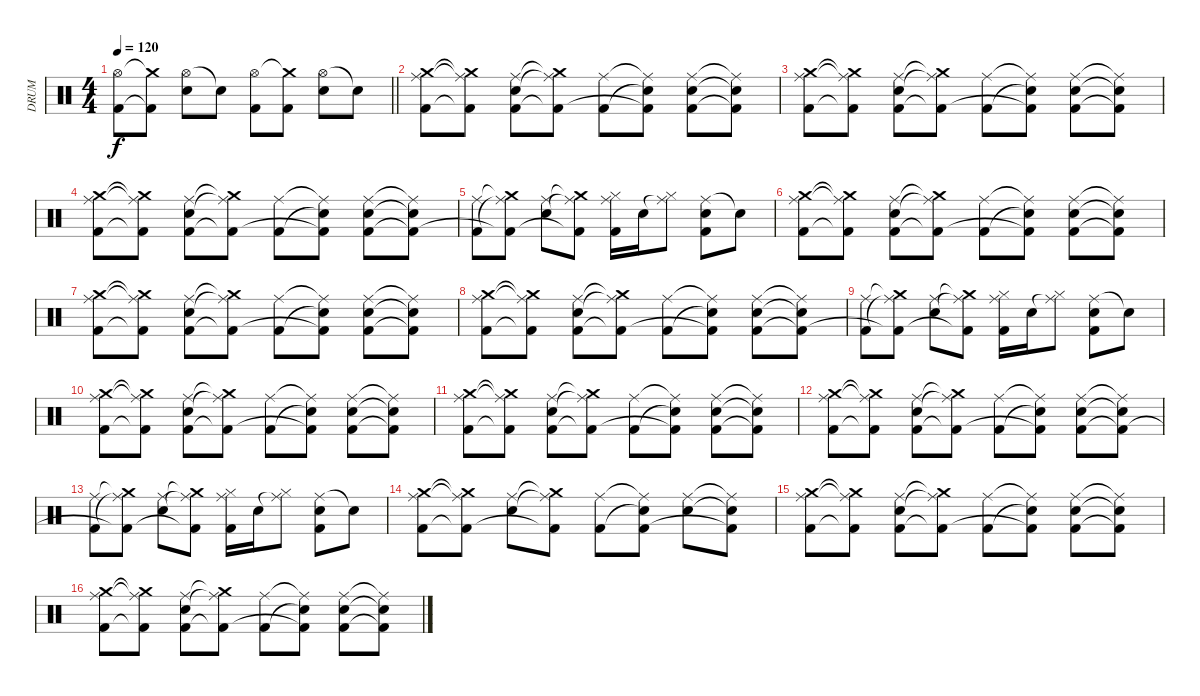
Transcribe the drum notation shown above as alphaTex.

\track ("DRUM" "DRUM") {instrument percussion}
\staff {score}
\articulation defaults
\ts (4 4)
\tempo 120
\clef neutral
\barLineRight lightlight
\ks c
("Hi-Hat (open)" "Kick (hit) 2").8{dy f} ("Crash medium (hit)"{t} "Kick (hit) 2"{t}).8 ("Hi-Hat (open)" "Electric Snare (hit)").8 "Electric Snare (hit)"{t}.8 ("Hi-Hat (open)" "Kick (hit) 2").8 ("Crash medium (hit)"{t} "Kick (hit) 2").8 ("Hi-Hat (open)" "Electric Snare (hit)").8 "Electric Snare (hit)"{t}.8 |
("Crash medium (hit)" "Ride (middle)" "Kick (hit) 2").8 ("Crash medium (hit)"{t} "Ride (middle)"{t} "Kick (hit) 2"{t}).8 ("Ride (middle)" "Electric Snare (hit)" "Kick (hit) 2").8 ("Crash medium (hit)"{t} "Ride (middle)"{t} "Kick (hit) 2"{t}).8 ("Ride (middle)" "Kick (hit) 2").8 ("Ride (middle)"{t} "Electric Snare (hit)"{t} "Kick (hit) 2"{t}).8 ("Ride (middle)" "Electric Snare (hit)" "Kick (hit) 2").8 ("Ride (middle)"{t} "Electric Snare (hit)"{t} "Kick (hit) 2"{t}).8 |
("Crash medium (hit)" "Ride (middle)" "Kick (hit) 2").8 ("Crash medium (hit)"{t} "Ride (middle)"{t} "Kick (hit) 2"{t}).8 ("Ride (middle)" "Electric Snare (hit)" "Kick (hit) 2").8 ("Crash medium (hit)"{t} "Ride (middle)"{t} "Kick (hit) 2"{t}).8 ("Ride (middle)" "Kick (hit) 2").8 ("Ride (middle)"{t} "Electric Snare (hit)"{t} "Kick (hit) 2"{t}).8 ("Ride (middle)" "Electric Snare (hit)" "Kick (hit) 2").8 ("Ride (middle)"{t} "Electric Snare (hit)"{t} "Kick (hit) 2"{t}).8 |
("Crash medium (hit)" "Ride (middle)" "Kick (hit) 2").8 ("Crash medium (hit)"{t} "Ride (middle)"{t} "Kick (hit) 2"{t}).8 ("Ride (middle)" "Electric Snare (hit)" "Kick (hit) 2").8 ("Crash medium (hit)"{t} "Ride (middle)"{t} "Kick (hit) 2"{t}).8 ("Ride (middle)" "Kick (hit) 2").8 ("Ride (middle)"{t} "Electric Snare (hit)"{t} "Kick (hit) 2"{t}).8 ("Ride (middle)" "Electric Snare (hit)" "Kick (hit) 2").8 ("Ride (middle)"{t} "Electric Snare (hit)"{t} "Kick (hit) 2"{t}).8 |
("Ride (middle)" "Kick (hit) 2").8 ("Crash medium (hit)"{t} "Ride (middle)"{t} "Kick (hit) 2"{t}).8 ("Ride (middle)" "Electric Snare (hit)").8 ("Crash medium (hit)"{t} "Ride (middle)"{t} "Kick (hit) 2"{t}).8 ("Ride (middle)" "Hi-Hat (closed)" "Kick (hit) 2").16 "Electric Snare (hit)".16 ("Ride (middle)"{t} "Hi-Hat (closed)").8 ("Ride (middle)" "Electric Snare (hit)" "Kick (hit) 2").8 "Electric Snare (hit)"{t}.8 |
("Crash medium (hit)" "Ride (middle)" "Kick (hit) 2").8 ("Crash medium (hit)"{t} "Ride (middle)"{t} "Kick (hit) 2"{t}).8 ("Ride (middle)" "Electric Snare (hit)" "Kick (hit) 2").8 ("Crash medium (hit)"{t} "Ride (middle)"{t} "Kick (hit) 2"{t}).8 ("Ride (middle)" "Kick (hit) 2").8 ("Ride (middle)"{t} "Electric Snare (hit)"{t} "Kick (hit) 2"{t}).8 ("Ride (middle)" "Electric Snare (hit)" "Kick (hit) 2").8 ("Ride (middle)"{t} "Electric Snare (hit)"{t} "Kick (hit) 2"{t}).8 |
("Crash medium (hit)" "Ride (middle)" "Kick (hit) 2").8 ("Crash medium (hit)"{t} "Ride (middle)"{t} "Kick (hit) 2"{t}).8 ("Ride (middle)" "Electric Snare (hit)" "Kick (hit) 2").8 ("Crash medium (hit)"{t} "Ride (middle)"{t} "Kick (hit) 2"{t}).8 ("Ride (middle)" "Kick (hit) 2").8 ("Ride (middle)"{t} "Electric Snare (hit)"{t} "Kick (hit) 2"{t}).8 ("Ride (middle)" "Electric Snare (hit)" "Kick (hit) 2").8 ("Ride (middle)"{t} "Electric Snare (hit)"{t} "Kick (hit) 2"{t}).8 |
("Crash medium (hit)" "Ride (middle)" "Kick (hit) 2").8 ("Crash medium (hit)"{t} "Ride (middle)"{t} "Kick (hit) 2"{t}).8 ("Ride (middle)" "Electric Snare (hit)" "Kick (hit) 2").8 ("Crash medium (hit)"{t} "Ride (middle)"{t} "Kick (hit) 2"{t}).8 ("Ride (middle)" "Kick (hit) 2").8 ("Ride (middle)"{t} "Electric Snare (hit)"{t} "Kick (hit) 2"{t}).8 ("Ride (middle)" "Electric Snare (hit)" "Kick (hit) 2").8 ("Ride (middle)"{t} "Electric Snare (hit)"{t} "Kick (hit) 2"{t}).8 |
("Ride (middle)" "Kick (hit) 2").8 ("Crash medium (hit)"{t} "Ride (middle)"{t} "Kick (hit) 2"{t}).8 ("Ride (middle)" "Electric Snare (hit)").8 ("Crash medium (hit)"{t} "Ride (middle)"{t} "Kick (hit) 2"{t}).8 ("Ride (middle)" "Hi-Hat (closed)" "Kick (hit) 2").16 "Electric Snare (hit)".16 ("Ride (middle)"{t} "Hi-Hat (closed)").8 ("Ride (middle)" "Electric Snare (hit)" "Kick (hit) 2").8 "Electric Snare (hit)"{t}.8 |
("Crash medium (hit)" "Ride (middle)" "Kick (hit) 2").8 ("Crash medium (hit)"{t} "Ride (middle)"{t} "Kick (hit) 2"{t}).8 ("Ride (middle)" "Electric Snare (hit)" "Kick (hit) 2").8 ("Crash medium (hit)"{t} "Ride (middle)"{t} "Kick (hit) 2"{t}).8 ("Ride (middle)" "Kick (hit) 2").8 ("Ride (middle)"{t} "Electric Snare (hit)"{t} "Kick (hit) 2"{t}).8 ("Ride (middle)" "Electric Snare (hit)" "Kick (hit) 2").8 ("Ride (middle)"{t} "Electric Snare (hit)"{t} "Kick (hit) 2"{t}).8 |
("Crash medium (hit)" "Ride (middle)" "Kick (hit) 2").8 ("Crash medium (hit)"{t} "Ride (middle)"{t} "Kick (hit) 2"{t}).8 ("Ride (middle)" "Electric Snare (hit)" "Kick (hit) 2").8 ("Crash medium (hit)"{t} "Ride (middle)"{t} "Kick (hit) 2"{t}).8 ("Ride (middle)" "Kick (hit) 2").8 ("Ride (middle)"{t} "Electric Snare (hit)"{t} "Kick (hit) 2"{t}).8 ("Ride (middle)" "Electric Snare (hit)" "Kick (hit) 2").8 ("Ride (middle)"{t} "Electric Snare (hit)"{t} "Kick (hit) 2"{t}).8 |
("Crash medium (hit)" "Ride (middle)" "Kick (hit) 2").8 ("Crash medium (hit)"{t} "Ride (middle)"{t} "Kick (hit) 2"{t}).8 ("Ride (middle)" "Electric Snare (hit)" "Kick (hit) 2").8 ("Crash medium (hit)"{t} "Ride (middle)"{t} "Kick (hit) 2"{t}).8 ("Ride (middle)" "Kick (hit) 2").8 ("Ride (middle)"{t} "Electric Snare (hit)"{t} "Kick (hit) 2"{t}).8 ("Ride (middle)" "Electric Snare (hit)" "Kick (hit) 2").8 ("Ride (middle)"{t} "Electric Snare (hit)"{t} "Kick (hit) 2"{t}).8 |
("Ride (middle)" "Kick (hit) 2").8 ("Crash medium (hit)"{t} "Ride (middle)"{t} "Kick (hit) 2"{t}).8 ("Ride (middle)" "Electric Snare (hit)").8 ("Crash medium (hit)"{t} "Ride (middle)"{t} "Kick (hit) 2"{t}).8 ("Ride (middle)" "Hi-Hat (closed)" "Kick (hit) 2").16 "Electric Snare (hit)".16 ("Ride (middle)"{t} "Hi-Hat (closed)").8 ("Ride (middle)" "Electric Snare (hit)" "Kick (hit) 2").8 "Electric Snare (hit)"{t}.8 |
("Crash medium (hit)" "Ride (middle)" "Kick (hit) 2").8 ("Crash medium (hit)"{t} "Ride (middle)"{t} "Kick (hit) 2"{t}).8 ("Ride (middle)" "Electric Snare (hit)").8 ("Crash medium (hit)"{t} "Ride (middle)"{t} "Kick (hit) 2"{t}).8 ("Ride (middle)" "Kick (hit) 2").8 ("Ride (middle)"{t} "Electric Snare (hit)"{t} "Kick (hit) 2").8 ("Ride (middle)" "Electric Snare (hit)").8 ("Ride (middle)"{t} "Electric Snare (hit)"{t} "Kick (hit) 2"{t}).8 |
("Crash medium (hit)" "Ride (middle)" "Kick (hit) 2").8 ("Crash medium (hit)"{t} "Ride (middle)"{t} "Kick (hit) 2"{t}).8 ("Ride (middle)" "Electric Snare (hit)" "Kick (hit) 2").8 ("Crash medium (hit)"{t} "Ride (middle)"{t} "Kick (hit) 2"{t}).8 ("Ride (middle)" "Kick (hit) 2").8 ("Ride (middle)"{t} "Electric Snare (hit)"{t} "Kick (hit) 2"{t}).8 ("Ride (middle)" "Electric Snare (hit)" "Kick (hit) 2").8 ("Ride (middle)"{t} "Electric Snare (hit)"{t} "Kick (hit) 2"{t}).8 |
("Crash medium (hit)" "Ride (middle)" "Kick (hit) 2").8 ("Crash medium (hit)"{t} "Ride (middle)"{t} "Kick (hit) 2"{t}).8 ("Ride (middle)" "Electric Snare (hit)" "Kick (hit) 2").8 ("Crash medium (hit)"{t} "Ride (middle)"{t} "Kick (hit) 2"{t}).8 ("Ride (middle)" "Kick (hit) 2").8 ("Ride (middle)"{t} "Electric Snare (hit)"{t} "Kick (hit) 2"{t}).8 ("Ride (middle)" "Electric Snare (hit)" "Kick (hit) 2").8 ("Ride (middle)"{t} "Electric Snare (hit)"{t} "Kick (hit) 2"{t}).8
